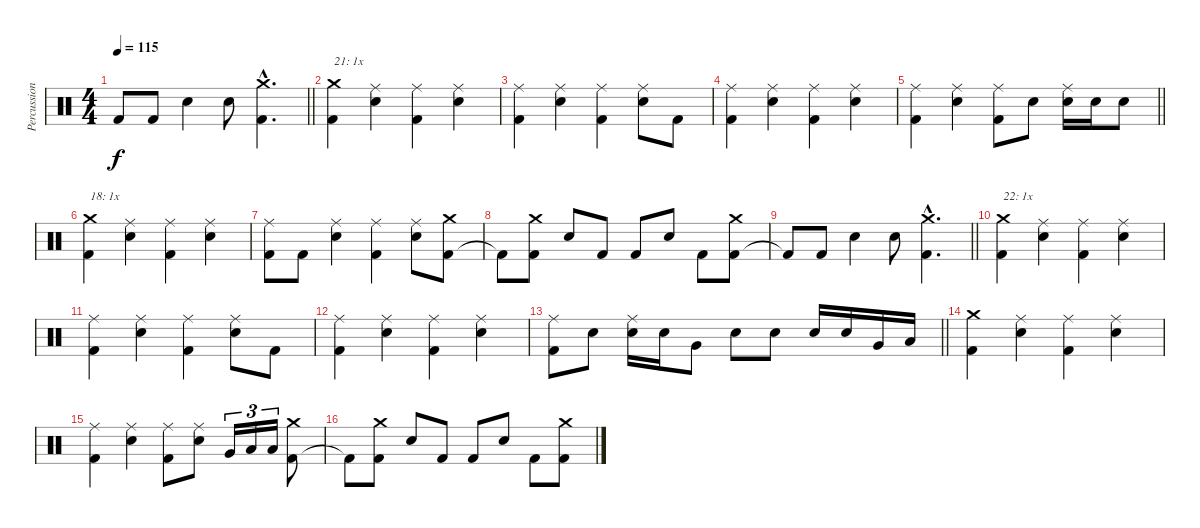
\track ("Percussion" "Percussion") {instrument percussion}
\staff {score}
\articulation defaults
\ts (4 4)
\tempo 115
\clef neutral
\barLineRight lightlight
\ks c "Kick (hit) 2"{t}.8{dy f} "Kick (hit) 2".8 "Electric Snare (hit)".4 "Electric Snare (hit)".8
("Kick (hit) 2"{hac} "Crash medium (hit)"{hac}).4{d} |
("Kick (hit) 2" "Crash medium (hit)").4{txt "21: 1x"} ("Electric Snare (hit)" "Ride (middle)").4 ("Kick (hit) 2" "Ride (middle)").4 ("Electric Snare (hit)" "Ride (middle)").4 |
("Kick (hit) 2" "Ride (middle)").4 ("Electric Snare (hit)" "Ride (middle)").4 ("Kick (hit) 2" "Ride (middle)").4 ("Electric Snare (hit)" "Ride (middle)").8 "Kick (hit) 2".8 |
("Kick (hit) 2" "Ride (middle)").4 ("Electric Snare (hit)" "Ride (middle)").4 ("Kick (hit) 2" "Ride (middle)").4 ("Electric Snare (hit)" "Ride (middle)").4 |
\barLineRight lightlight
("Kick (hit) 2" "Ride (middle)").4 ("Electric Snare (hit)" "Ride (middle)").4 ("Kick (hit) 2" "Ride (middle)").8 "Electric Snare (hit)".8 ("Electric Snare (hit)" "Ride (middle)").16 "Electric Snare (hit)".16 "Electric Snare (hit)".8 |
("Kick (hit) 2" "Crash medium (hit)").4{txt "18: 1x"} ("Electric Snare (hit)" "Ride (middle)").4 ("Kick (hit) 2" "Ride (middle)").4 ("Electric Snare (hit)" "Ride (middle)").4 |
("Kick (hit) 2" "Ride (middle)").8 "Kick (hit) 2".8 ("Electric Snare (hit)" "Ride (middle)").4 ("Kick (hit) 2" "Ride (middle)").4 ("Electric Snare (hit)" "Ride (middle)").8 ("Kick (hit) 2" "Crash medium (hit)").8 |
"Kick (hit) 2"{t}.8 ("Kick (hit) 2" "Crash medium (hit)").8 "Electric Snare (hit)".8 "Kick (hit) 2".8 "Kick (hit) 2".8 "Electric Snare (hit)".8 "Kick (hit) 2".8 ("Kick (hit) 2" "Crash medium (hit)").8 |
\barLineRight lightlight "Kick (hit) 2"{t}.8 "Kick (hit) 2".8 "Electric Snare (hit)".4 "Electric Snare (hit)".8
("Kick (hit) 2"{hac} "Crash medium (hit)"{hac}).4{d} |
("Kick (hit) 2" "Crash medium (hit)").4{txt "22: 1x"} ("Electric Snare (hit)" "Ride (middle)").4 ("Kick (hit) 2" "Ride (middle)").4 ("Electric Snare (hit)" "Ride (middle)").4 |
("Kick (hit) 2" "Ride (middle)").4 ("Electric Snare (hit)" "Ride (middle)").4 ("Kick (hit) 2" "Ride (middle)").4 ("Electric Snare (hit)" "Ride (middle)").8 "Kick (hit) 2".8 |
("Kick (hit) 2" "Ride (middle)").4 ("Electric Snare (hit)" "Ride (middle)").4 ("Kick (hit) 2" "Ride (middle)").4 ("Electric Snare (hit)" "Ride (middle)").4 |
\barLineRight lightlight
("Kick (hit) 2" "Ride (middle)").8 "Electric Snare (hit)".8 ("Electric Snare (hit)" "Ride (middle)").16 "Electric Snare (hit)".16 "Very Low Tom (hit)".8 "Electric Snare (hit)".8 "Electric Snare (hit)".8 "Electric Snare (hit)".16 "Electric Snare (hit)".16 "Very Low Tom (hit)".16 "Low Floor Tom (hit)".16 |
("Kick (hit) 2" "Crash medium (hit)").4 ("Electric Snare (hit)" "Ride (middle)").4 ("Kick (hit) 2" "Ride (middle)").4 ("Electric Snare (hit)" "Ride (middle)").4 |
("Kick (hit) 2" "Ride (middle)").4 ("Electric Snare (hit)" "Ride (middle)").4 ("Kick (hit) 2" "Ride (middle)").8 ("Electric Snare (hit)" "Ride (middle)").8 "Very Low Tom (hit)".16{tu (3 2)} "Low Tom (hit)".16{tu (3 2)} "Low Floor Tom (hit)".16{tu (3 2)} ("Kick (hit) 2" "Crash medium (hit)").8 |
"Kick (hit) 2"{t}.8 ("Kick (hit) 2" "Crash medium (hit)").8 "Electric Snare (hit)".8 "Kick (hit) 2".8 "Kick (hit) 2".8 "Electric Snare (hit)".8 "Kick (hit) 2".8 ("Kick (hit) 2" "Crash medium (hit)").8
